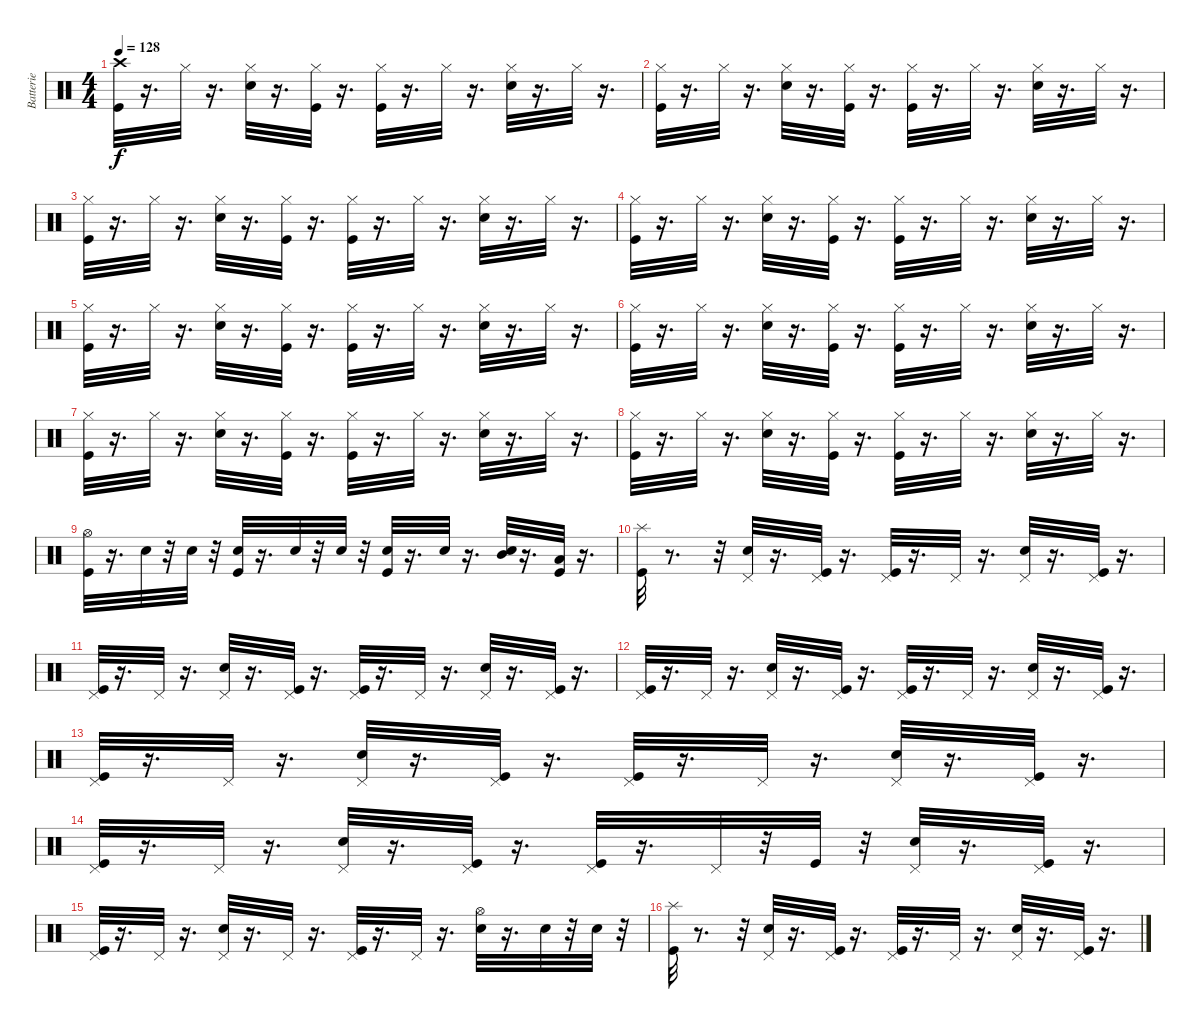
\track ("Batterie" "Batterie") {instrument percussion}
\staff {score}
\articulation defaults
\ts (4 4)
\tempo 128
\clef neutral
\ks c
("Crash high (hit)" "Kick (hit)").32{dy f} r.16{d} "Hi-Hat (closed)".32 r.16{d} ("Snare (hit) 2" "Hi-Hat (closed)").32 r.16{d} ("Kick (hit)" "Hi-Hat (closed)").32 r.16{d} ("Kick (hit)" "Hi-Hat (closed)").32 r.16{d} "Hi-Hat (closed)".32 r.16{d} ("Snare (hit) 2" "Hi-Hat (closed)").32 r.16{d} "Hi-Hat (closed)".32 r.16{d} |
("Kick (hit)" "Hi-Hat (closed)").32 r.16{d} "Hi-Hat (closed)".32 r.16{d} ("Snare (hit) 2" "Hi-Hat (closed)").32 r.16{d} ("Kick (hit)" "Hi-Hat (closed)").32 r.16{d} ("Kick (hit)" "Hi-Hat (closed)").32 r.16{d} "Hi-Hat (closed)".32 r.16{d} ("Snare (hit) 2" "Hi-Hat (closed)").32 r.16{d} "Hi-Hat (closed)".32 r.16{d} |
("Kick (hit)" "Hi-Hat (closed)").32 r.16{d} "Hi-Hat (closed)".32 r.16{d} ("Snare (hit) 2" "Hi-Hat (closed)").32 r.16{d} ("Kick (hit)" "Hi-Hat (closed)").32 r.16{d} ("Kick (hit)" "Hi-Hat (closed)").32 r.16{d} "Hi-Hat (closed)".32 r.16{d} ("Snare (hit) 2" "Hi-Hat (closed)").32 r.16{d} "Hi-Hat (closed)".32 r.16{d} |
("Kick (hit)" "Hi-Hat (closed)").32 r.16{d} "Hi-Hat (closed)".32 r.16{d} ("Snare (hit) 2" "Hi-Hat (closed)").32 r.16{d} ("Kick (hit)" "Hi-Hat (closed)").32 r.16{d} ("Kick (hit)" "Hi-Hat (closed)").32 r.16{d} "Hi-Hat (closed)".32 r.16{d} ("Snare (hit) 2" "Hi-Hat (closed)").32 r.16{d} "Hi-Hat (closed)".32 r.16{d} |
("Hi-Hat (closed)" "Kick (hit)").32 r.16{d} "Hi-Hat (closed)".32 r.16{d} ("Snare (hit) 2" "Hi-Hat (closed)").32 r.16{d} ("Kick (hit)" "Hi-Hat (closed)").32 r.16{d} ("Kick (hit)" "Hi-Hat (closed)").32 r.16{d} "Hi-Hat (closed)".32 r.16{d} ("Snare (hit) 2" "Hi-Hat (closed)").32 r.16{d} "Hi-Hat (closed)".32 r.16{d} |
("Kick (hit)" "Hi-Hat (closed)").32 r.16{d} "Hi-Hat (closed)".32 r.16{d} ("Snare (hit) 2" "Hi-Hat (closed)").32 r.16{d} ("Kick (hit)" "Hi-Hat (closed)").32 r.16{d} ("Kick (hit)" "Hi-Hat (closed)").32 r.16{d} "Hi-Hat (closed)".32 r.16{d} ("Snare (hit) 2" "Hi-Hat (closed)").32 r.16{d} "Hi-Hat (closed)".32 r.16{d} |
("Kick (hit)" "Hi-Hat (closed)").32 r.16{d} "Hi-Hat (closed)".32 r.16{d} ("Snare (hit) 2" "Hi-Hat (closed)").32 r.16{d} ("Kick (hit)" "Hi-Hat (closed)").32 r.16{d} ("Kick (hit)" "Hi-Hat (closed)").32 r.16{d} "Hi-Hat (closed)".32 r.16{d} ("Snare (hit) 2" "Hi-Hat (closed)").32 r.16{d} "Hi-Hat (closed)".32 r.16{d} |
("Kick (hit)" "Hi-Hat (closed)").32 r.16{d} "Hi-Hat (closed)".32 r.16{d} ("Snare (hit) 2" "Hi-Hat (closed)").32 r.16{d} ("Kick (hit)" "Hi-Hat (closed)").32 r.16{d} ("Kick (hit)" "Hi-Hat (closed)").32 r.16{d} "Hi-Hat (closed)".32 r.16{d} ("Snare (hit) 2" "Hi-Hat (closed)").32 r.16{d} "Hi-Hat (closed)".32 r.16{d} |
("Kick (hit)" "Hi-Hat (open)").32 r.16{d} "Snare (hit) 2".32 r.32 "Snare (hit) 2".32 r.32 ("Snare (hit) 2" "Kick (hit)").32 r.16{d} "Snare (hit) 2".32 r.32 "Snare (hit) 2".32 r.32 ("Snare (hit) 2" "Kick (hit)").32 r.16{d} "Snare (hit) 2".32 r.16{d} ("Mid Tom (hit)" "Snare (hit) 2").32 r.16{d} ("Low Tom (hit)" "Kick (hit)").32 r.16{d} |
("Kick (hit)" "Splash (hit)").32 r.8{d} r.32 ("Pedal Hi-Hat (hit)" "Snare (hit) 2").32 r.16{d} ("Kick (hit)" "Pedal Hi-Hat (hit)").32 r.16{d} ("Pedal Hi-Hat (hit)" "Kick (hit)").32 r.16{d} "Pedal Hi-Hat (hit)".32 r.16{d} ("Pedal Hi-Hat (hit)" "Snare (hit) 2").32 r.16{d} ("Kick (hit)" "Pedal Hi-Hat (hit)").32 r.16{d} |
("Pedal Hi-Hat (hit)" "Kick (hit)").32 r.16{d} "Pedal Hi-Hat (hit)".32 r.16{d} ("Pedal Hi-Hat (hit)" "Snare (hit) 2").32 r.16{d} ("Pedal Hi-Hat (hit)" "Kick (hit)").32 r.16{d} ("Pedal Hi-Hat (hit)" "Kick (hit)").32 r.16{d} "Pedal Hi-Hat (hit)".32 r.16{d} ("Pedal Hi-Hat (hit)" "Snare (hit) 2").32 r.16{d} ("Pedal Hi-Hat (hit)" "Kick (hit)").32 r.16{d} |
("Pedal Hi-Hat (hit)" "Kick (hit)").32 r.16{d} "Pedal Hi-Hat (hit)".32 r.16{d} ("Pedal Hi-Hat (hit)" "Snare (hit) 2").32 r.16{d} ("Kick (hit)" "Pedal Hi-Hat (hit)").32 r.16{d} ("Pedal Hi-Hat (hit)" "Kick (hit)").32 r.16{d} "Pedal Hi-Hat (hit)".32 r.16{d} ("Pedal Hi-Hat (hit)" "Snare (hit) 2").32 r.16{d} ("Kick (hit)" "Pedal Hi-Hat (hit)").32 r.16{d} |
("Pedal Hi-Hat (hit)" "Kick (hit)").32 r.16{d} "Pedal Hi-Hat (hit)".32 r.16{d} ("Pedal Hi-Hat (hit)" "Snare (hit) 2").32 r.16{d} ("Pedal Hi-Hat (hit)" "Kick (hit)").32 r.16{d} ("Pedal Hi-Hat (hit)" "Kick (hit)").32 r.16{d} "Pedal Hi-Hat (hit)".32 r.16{d} ("Pedal Hi-Hat (hit)" "Snare (hit) 2").32 r.16{d} ("Pedal Hi-Hat (hit)" "Kick (hit)").32 r.16{d} |
("Pedal Hi-Hat (hit)" "Kick (hit)").32 r.16{d} "Pedal Hi-Hat (hit)".32 r.16{d} ("Pedal Hi-Hat (hit)" "Snare (hit) 2").32 r.16{d} ("Kick (hit)" "Pedal Hi-Hat (hit)").32 r.16{d} ("Pedal Hi-Hat (hit)" "Kick (hit)").32 r.16{d} "Pedal Hi-Hat (hit)".32 r.32 "Kick (hit)".32 r.32 ("Pedal Hi-Hat (hit)" "Snare (hit) 2").32 r.16{d} ("Kick (hit)" "Pedal Hi-Hat (hit)").32 r.16{d} |
("Pedal Hi-Hat (hit)" "Kick (hit)").32 r.16{d} "Pedal Hi-Hat (hit)".32 r.16{d} ("Pedal Hi-Hat (hit)" "Snare (hit) 2").32 r.16{d} "Pedal Hi-Hat (hit)".32 r.16{d} ("Pedal Hi-Hat (hit)" "Kick (hit)").32 r.16{d} "Pedal Hi-Hat (hit)".32 r.16{d} ("Hi-Hat (open)" "Snare (hit) 2").32 r.16{d} "Snare (hit) 2".32 r.32 "Snare (hit) 2".32 r.32 |
("Splash (hit)" "Kick (hit)").32 r.8{d} r.32 ("Pedal Hi-Hat (hit)" "Snare (hit) 2").32 r.16{d} ("Kick (hit)" "Pedal Hi-Hat (hit)").32 r.16{d} ("Pedal Hi-Hat (hit)" "Kick (hit)").32 r.16{d} "Pedal Hi-Hat (hit)".32 r.16{d} ("Pedal Hi-Hat (hit)" "Snare (hit) 2").32 r.16{d} ("Kick (hit)" "Pedal Hi-Hat (hit)").32 r.16{d}
